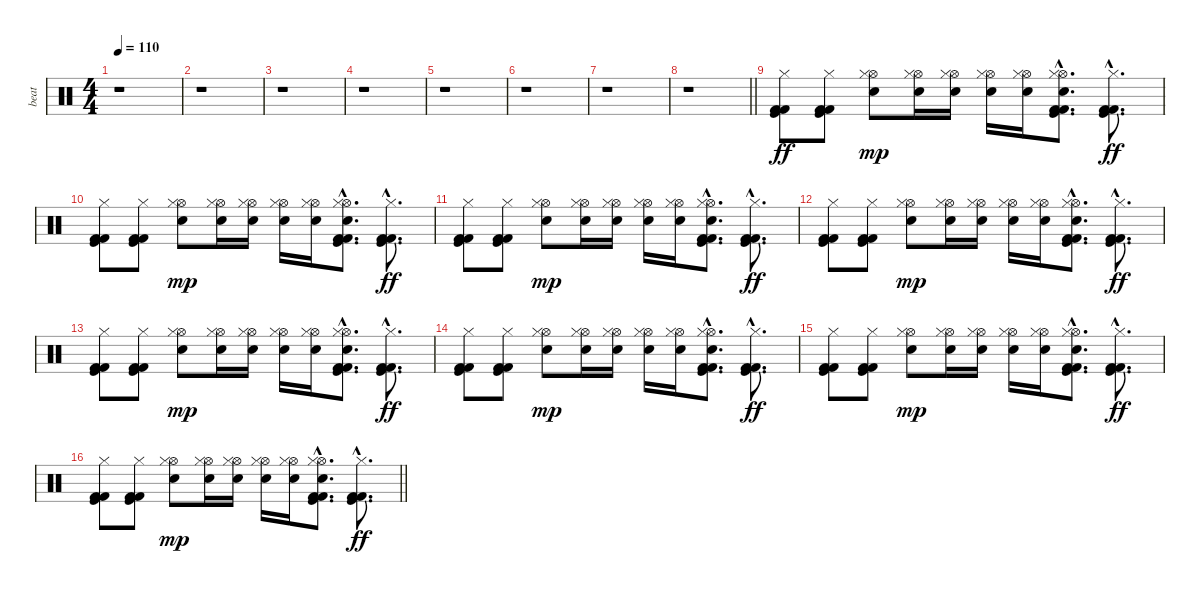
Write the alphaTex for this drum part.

\track ("beat" "beat") {instrument percussion}
\staff {score}
\articulation defaults
\ts (4 4)
\tempo 110
\clef neutral
\ks c
r.1{dy ff} |
r.1 |
r.1 |
r.1 |
r.1 |
r.1 |
r.1 |
\barLineRight lightlight
r.1 |
("Kick (hit)" "Kick (hit) 2" "Kick (hit) 2" "Hi-Hat (closed)").8 ("Kick (hit)" "Kick (hit) 2" "Kick (hit) 2" "Hi-Hat (closed)").8 ("Hi-Hat (open)" "Hi-Hat (closed)" "Snare (hit) 2").8{dy mp} ("Hi-Hat (open)" "Hi-Hat (closed)" "Snare (hit) 2").16 ("Hi-Hat (open)" "Hi-Hat (closed)" "Snare (hit) 2").16 ("Hi-Hat (open)" "Hi-Hat (closed)" "Snare (hit) 2").16 ("Hi-Hat (open)" "Hi-Hat (closed)" "Snare (hit) 2").16 ("Kick (hit)"{hac} "Kick (hit) 2"{hac} "Kick (hit) 2"{hac} "Hi-Hat (open)"{hac} "Hi-Hat (closed)"{hac} "Snare (hit) 2"{hac}).8{d} ("Kick (hit)"{hac} "Kick (hit) 2"{hac} "Kick (hit) 2"{hac} "Hi-Hat (closed)"{hac}).8{d dy ff} |
("Kick (hit)" "Kick (hit) 2" "Kick (hit) 2" "Hi-Hat (closed)").8 ("Kick (hit)" "Kick (hit) 2" "Kick (hit) 2" "Hi-Hat (closed)").8 ("Hi-Hat (open)" "Hi-Hat (closed)" "Snare (hit) 2").8{dy mp} ("Hi-Hat (open)" "Hi-Hat (closed)" "Snare (hit) 2").16 ("Hi-Hat (open)" "Hi-Hat (closed)" "Snare (hit) 2").16 ("Hi-Hat (open)" "Hi-Hat (closed)" "Snare (hit) 2").16 ("Hi-Hat (open)" "Hi-Hat (closed)" "Snare (hit) 2").16 ("Kick (hit)"{hac} "Kick (hit) 2"{hac} "Kick (hit) 2"{hac} "Hi-Hat (open)"{hac} "Hi-Hat (closed)"{hac} "Snare (hit) 2"{hac}).8{d} ("Kick (hit)"{hac} "Kick (hit) 2"{hac} "Kick (hit) 2"{hac} "Hi-Hat (closed)"{hac}).8{d dy ff} |
("Kick (hit)" "Kick (hit) 2" "Kick (hit) 2" "Hi-Hat (closed)").8 ("Kick (hit)" "Kick (hit) 2" "Kick (hit) 2" "Hi-Hat (closed)").8 ("Hi-Hat (open)" "Hi-Hat (closed)" "Snare (hit) 2").8{dy mp} ("Hi-Hat (open)" "Hi-Hat (closed)" "Snare (hit) 2").16 ("Hi-Hat (open)" "Hi-Hat (closed)" "Snare (hit) 2").16 ("Hi-Hat (open)" "Hi-Hat (closed)" "Snare (hit) 2").16 ("Hi-Hat (open)" "Hi-Hat (closed)" "Snare (hit) 2").16 ("Kick (hit)"{hac} "Kick (hit) 2"{hac} "Kick (hit) 2"{hac} "Hi-Hat (open)"{hac} "Hi-Hat (closed)"{hac} "Snare (hit) 2"{hac}).8{d} ("Kick (hit)"{hac} "Kick (hit) 2"{hac} "Kick (hit) 2"{hac} "Hi-Hat (closed)"{hac}).8{d dy ff} |
("Kick (hit)" "Kick (hit) 2" "Kick (hit) 2" "Hi-Hat (closed)").8 ("Kick (hit)" "Kick (hit) 2" "Kick (hit) 2" "Hi-Hat (closed)").8 ("Hi-Hat (open)" "Hi-Hat (closed)" "Snare (hit) 2").8{dy mp} ("Hi-Hat (open)" "Hi-Hat (closed)" "Snare (hit) 2").16 ("Hi-Hat (open)" "Hi-Hat (closed)" "Snare (hit) 2").16 ("Hi-Hat (open)" "Hi-Hat (closed)" "Snare (hit) 2").16 ("Hi-Hat (open)" "Hi-Hat (closed)" "Snare (hit) 2").16 ("Kick (hit)"{hac} "Kick (hit) 2"{hac} "Kick (hit) 2"{hac} "Hi-Hat (open)"{hac} "Hi-Hat (closed)"{hac} "Snare (hit) 2"{hac}).8{d} ("Kick (hit)"{hac} "Kick (hit) 2"{hac} "Kick (hit) 2"{hac} "Hi-Hat (closed)"{hac}).8{d dy ff} |
("Kick (hit)" "Kick (hit) 2" "Kick (hit) 2" "Hi-Hat (closed)").8 ("Kick (hit)" "Kick (hit) 2" "Kick (hit) 2" "Hi-Hat (closed)").8 ("Hi-Hat (open)" "Hi-Hat (closed)" "Snare (hit) 2").8{dy mp} ("Hi-Hat (open)" "Hi-Hat (closed)" "Snare (hit) 2").16 ("Hi-Hat (open)" "Hi-Hat (closed)" "Snare (hit) 2").16 ("Hi-Hat (open)" "Hi-Hat (closed)" "Snare (hit) 2").16 ("Hi-Hat (open)" "Hi-Hat (closed)" "Snare (hit) 2").16 ("Kick (hit)"{hac} "Kick (hit) 2"{hac} "Kick (hit) 2"{hac} "Hi-Hat (open)"{hac} "Hi-Hat (closed)"{hac} "Snare (hit) 2"{hac}).8{d} ("Kick (hit)"{hac} "Kick (hit) 2"{hac} "Kick (hit) 2"{hac} "Hi-Hat (closed)"{hac}).8{d dy ff} |
("Kick (hit)" "Kick (hit) 2" "Kick (hit) 2" "Hi-Hat (closed)").8 ("Kick (hit)" "Kick (hit) 2" "Kick (hit) 2" "Hi-Hat (closed)").8 ("Hi-Hat (open)" "Hi-Hat (closed)" "Snare (hit) 2").8{dy mp} ("Hi-Hat (open)" "Hi-Hat (closed)" "Snare (hit) 2").16 ("Hi-Hat (open)" "Hi-Hat (closed)" "Snare (hit) 2").16 ("Hi-Hat (open)" "Hi-Hat (closed)" "Snare (hit) 2").16 ("Hi-Hat (open)" "Hi-Hat (closed)" "Snare (hit) 2").16 ("Kick (hit)"{hac} "Kick (hit) 2"{hac} "Kick (hit) 2"{hac} "Hi-Hat (open)"{hac} "Hi-Hat (closed)"{hac} "Snare (hit) 2"{hac}).8{d} ("Kick (hit)"{hac} "Kick (hit) 2"{hac} "Kick (hit) 2"{hac} "Hi-Hat (closed)"{hac}).8{d dy ff} |
("Kick (hit)" "Kick (hit) 2" "Kick (hit) 2" "Hi-Hat (closed)").8 ("Kick (hit)" "Kick (hit) 2" "Kick (hit) 2" "Hi-Hat (closed)").8 ("Hi-Hat (open)" "Hi-Hat (closed)" "Snare (hit) 2").8{dy mp} ("Hi-Hat (open)" "Hi-Hat (closed)" "Snare (hit) 2").16 ("Hi-Hat (open)" "Hi-Hat (closed)" "Snare (hit) 2").16 ("Hi-Hat (open)" "Hi-Hat (closed)" "Snare (hit) 2").16 ("Hi-Hat (open)" "Hi-Hat (closed)" "Snare (hit) 2").16 ("Kick (hit)"{hac} "Kick (hit) 2"{hac} "Kick (hit) 2"{hac} "Hi-Hat (open)"{hac} "Hi-Hat (closed)"{hac} "Snare (hit) 2"{hac}).8{d} ("Kick (hit)"{hac} "Kick (hit) 2"{hac} "Kick (hit) 2"{hac} "Hi-Hat (closed)"{hac}).8{d dy ff} |
\barLineRight lightlight
("Kick (hit)" "Kick (hit) 2" "Kick (hit) 2" "Hi-Hat (closed)").8 ("Kick (hit)" "Kick (hit) 2" "Kick (hit) 2" "Hi-Hat (closed)").8 ("Hi-Hat (open)" "Hi-Hat (closed)" "Snare (hit) 2").8{dy mp} ("Hi-Hat (open)" "Hi-Hat (closed)" "Snare (hit) 2").16 ("Hi-Hat (open)" "Hi-Hat (closed)" "Snare (hit) 2").16 ("Hi-Hat (open)" "Hi-Hat (closed)" "Snare (hit) 2").16 ("Hi-Hat (open)" "Hi-Hat (closed)" "Snare (hit) 2").16 ("Kick (hit)"{hac} "Kick (hit) 2"{hac} "Kick (hit) 2"{hac} "Hi-Hat (open)"{hac} "Hi-Hat (closed)"{hac} "Snare (hit) 2"{hac}).8{d} ("Kick (hit)"{hac} "Kick (hit) 2"{hac} "Kick (hit) 2"{hac} "Hi-Hat (closed)"{hac}).8{d dy ff}
